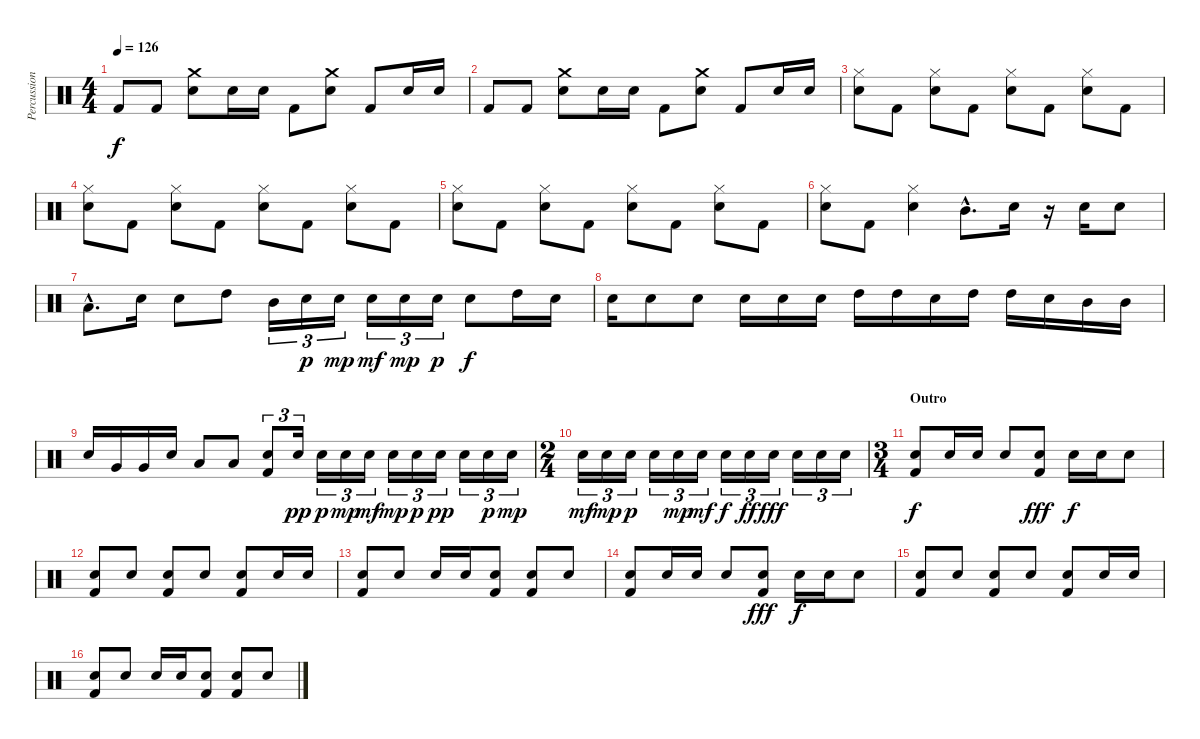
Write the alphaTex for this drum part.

\track ("Percussion" "Percussion") {instrument percussion}
\staff {score}
\articulation defaults
\ts (4 4)
\tempo 126
\clef neutral
\ks c "Kick (hit) 2".8{dy f} "Kick (hit) 2".8
("Crash medium (hit)" "Electric Snare (hit)").8 "Electric Snare (hit)".16 "Electric Snare (hit)".16 "Kick (hit) 2".8 ("Crash medium (hit)" "Electric Snare (hit)").8 "Kick (hit) 2".8 "Electric Snare (hit)".16 "Electric Snare (hit)".16 |
"Kick (hit) 2".8 "Kick (hit) 2".8 ("Crash medium (hit)" "Electric Snare (hit)").8 "Electric Snare (hit)".16 "Electric Snare (hit)".16 "Kick (hit) 2".8 ("Crash medium (hit)" "Electric Snare (hit)").8 "Kick (hit) 2".8 "Electric Snare (hit)".16 "Electric Snare (hit)".16 |
("Hi-Hat (closed)" "Electric Snare (hit)").8 "Kick (hit) 2".8 ("Hi-Hat (closed)" "Electric Snare (hit)").8 "Kick (hit) 2".8 ("Hi-Hat (closed)" "Electric Snare (hit)").8 "Kick (hit) 2".8 ("Hi-Hat (closed)" "Electric Snare (hit)").8 "Kick (hit) 2".8 |
("Hi-Hat (closed)" "Electric Snare (hit)").8 "Kick (hit) 2".8 ("Hi-Hat (closed)" "Electric Snare (hit)").8 "Kick (hit) 2".8 ("Hi-Hat (closed)" "Electric Snare (hit)").8 "Kick (hit) 2".8 ("Hi-Hat (closed)" "Electric Snare (hit)").8 "Kick (hit) 2".8 |
("Hi-Hat (closed)" "Electric Snare (hit)").8 "Kick (hit) 2".8 ("Hi-Hat (closed)" "Electric Snare (hit)").8 "Kick (hit) 2".8 ("Hi-Hat (closed)" "Electric Snare (hit)").8 "Kick (hit) 2".8 ("Hi-Hat (closed)" "Electric Snare (hit)").8 "Kick (hit) 2".8 |
("Hi-Hat (closed)" "Electric Snare (hit)").8 "Kick (hit) 2".8 ("Hi-Hat (closed)" "Electric Snare (hit)").4 "Mid Tom (hit)"{hac}.8{d} "Electric Snare (hit)".16 r.16 "Electric Snare (hit)".16 "Electric Snare (hit)".8 |
"Low Tom (hit)"{hac}.8{d} "Electric Snare (hit)".16 "Electric Snare (hit)".8 "High Tom (hit)".8 "Mid Tom (hit)".16{tu (3 2)} "Electric Snare (hit)".16{tu (3 2) dy p} "Electric Snare (hit)".16{tu (3 2) dy mp} "Electric Snare (hit)".16{tu (3 2) dy mf} "Electric Snare (hit)".16{tu (3 2) dy mp} "Electric Snare (hit)".16{tu (3 2) dy p} "Electric Snare (hit)".8{dy f} "High Tom (hit)".16 "Electric Snare (hit)".16 |
"Electric Snare (hit)".16 "Electric Snare (hit)".8 "Electric Snare (hit)".8 "Electric Snare (hit)".16 "Electric Snare (hit)".16 "Electric Snare (hit)".16 "High Tom (hit)".16 "High Tom (hit)".16 "Electric Snare (hit)".16 "High Tom (hit)".16 "High Tom (hit)".16 "Electric Snare (hit)".16 "Mid Tom (hit)".16 "Mid Tom (hit)".16 |
"Electric Snare (hit)".16 "Very Low Tom (hit)".16 "Very Low Tom (hit)".16 "Electric Snare (hit)".16 "Low Floor Tom (hit)".8 "Low Floor Tom (hit)".8 ("Electric Snare (hit)" "Kick (hit) 2").8{tu (3 2)} "Electric Snare (hit)".16{tu (3 2) dy pp} "Electric Snare (hit)".16{tu (3 2) dy p} "Electric Snare (hit)".16{tu (3 2) dy mp} "Electric Snare (hit)".16{tu (3 2) dy mf} "Electric Snare (hit)".16{tu (3 2) dy mp} "Electric Snare (hit)".16{tu (3 2) dy p} "Electric Snare (hit)".16{tu (3 2) dy pp} "Electric Snare (hit)".16{tu (3 2)} "Electric Snare (hit)".16{tu (3 2) dy p} "Electric Snare (hit)".16{tu (3 2) dy mp} |
\ts (2 4)
"Electric Snare (hit)".16{tu (3 2) dy mf} "Electric Snare (hit)".16{tu (3 2) dy mp} "Electric Snare (hit)".16{tu (3 2) dy p} "Electric Snare (hit)".16{tu (3 2)} "Electric Snare (hit)".16{tu (3 2) dy mp} "Electric Snare (hit)".16{tu (3 2) dy mf} "Electric Snare (hit)".16{tu (3 2) dy f} "Electric Snare (hit)".16{tu (3 2) dy ff} "Electric Snare (hit)".16{tu (3 2) dy fff} "Electric Snare (hit)".16{tu (3 2)} "Electric Snare (hit)".16{tu (3 2)} "Electric Snare (hit)".16{tu (3 2)} |
\ts (3 4)
\section ("" "Outro")
("Snare (hit) 2" "Kick (hit) 2").8{dy f} "Snare (hit) 2".16 "Snare (hit) 2".16 "Snare (hit) 2".8 ("Snare (hit) 2" "Kick (hit) 2").8{dy fff} "Snare (hit) 2".16{dy f} "Snare (hit) 2".16 "Snare (hit) 2".8 |
("Snare (hit) 2" "Kick (hit) 2").8 "Snare (hit) 2".8 ("Snare (hit) 2" "Kick (hit) 2").8 "Snare (hit) 2".8 ("Snare (hit) 2" "Kick (hit) 2").8 "Snare (hit) 2".16 "Snare (hit) 2".16 |
("Snare (hit) 2" "Kick (hit) 2").8 "Snare (hit) 2".8 "Snare (hit) 2".16 "Snare (hit) 2".16 ("Snare (hit) 2" "Kick (hit) 2").8 ("Snare (hit) 2" "Kick (hit) 2").8 "Snare (hit) 2".8 |
("Snare (hit) 2" "Kick (hit) 2").8 "Snare (hit) 2".16 "Snare (hit) 2".16 "Snare (hit) 2".8 ("Snare (hit) 2" "Kick (hit) 2").8{dy fff} "Snare (hit) 2".16{dy f} "Snare (hit) 2".16 "Snare (hit) 2".8 |
("Snare (hit) 2" "Kick (hit) 2").8 "Snare (hit) 2".8 ("Snare (hit) 2" "Kick (hit) 2").8 "Snare (hit) 2".8 ("Snare (hit) 2" "Kick (hit) 2").8 "Snare (hit) 2".16 "Snare (hit) 2".16 |
("Snare (hit) 2" "Kick (hit) 2").8 "Snare (hit) 2".8 "Snare (hit) 2".16 "Snare (hit) 2".16 ("Snare (hit) 2" "Kick (hit) 2").8 ("Snare (hit) 2" "Kick (hit) 2").8 "Snare (hit) 2".8
